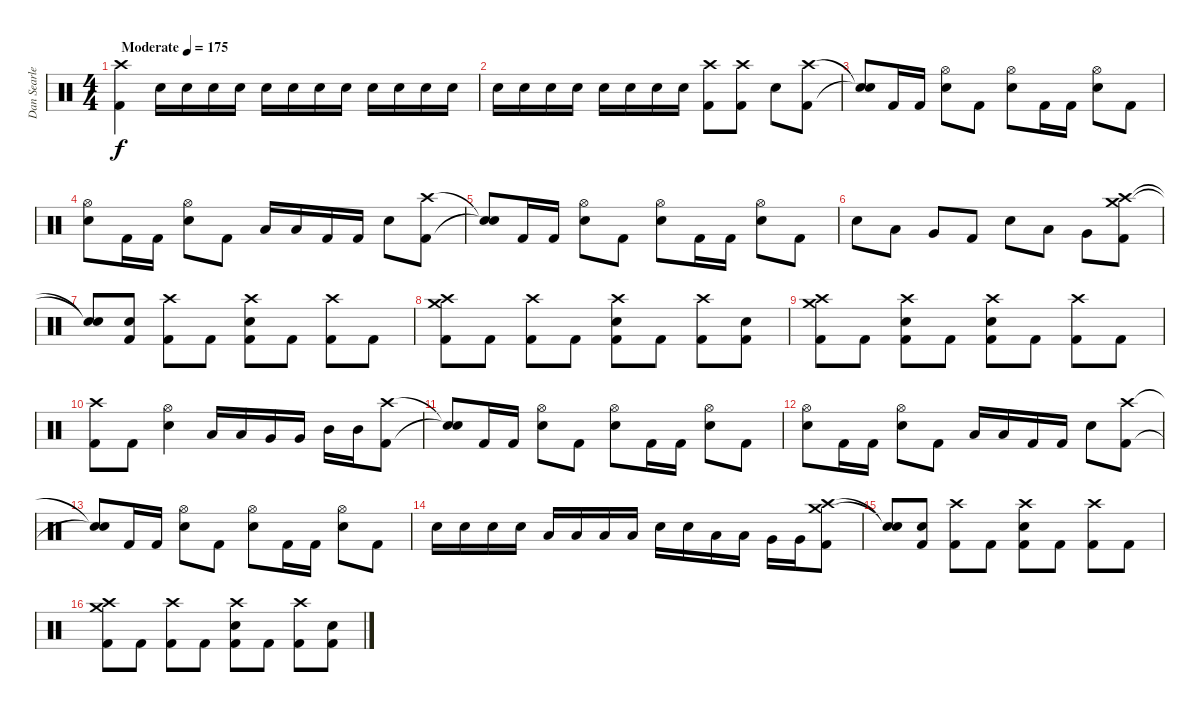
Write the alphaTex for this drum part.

\track ("Dan Searle" "Dan Searle") {instrument percussion}
\staff {score}
\articulation defaults
\ts (4 4)
\tempo (175 "Moderate")
\clef neutral
\ks c
("Crash high (hit)" "Kick (hit) 2").4{dy f} "Snare (hit) 2".16 "Snare (hit) 2".16 "Snare (hit) 2".16 "Snare (hit) 2".16 "Snare (hit) 2".16 "Snare (hit) 2".16 "Snare (hit) 2".16 "Snare (hit) 2".16 "Snare (hit) 2".16 "Snare (hit) 2".16 "Snare (hit) 2".16 "Snare (hit) 2".16 |
"Snare (hit) 2".16 "Snare (hit) 2".16 "Snare (hit) 2".16 "Snare (hit) 2".16 "Snare (hit) 2".16 "Snare (hit) 2".16 "Snare (hit) 2".16 "Snare (hit) 2".16 ("Crash high (hit)" "Kick (hit) 2").8 ("Crash high (hit)" "Kick (hit) 2").8 "Snare (hit) 2".8 ("Crash high (hit)" "Kick (hit) 2").8 |
("Snare (hit)"{t} "Snare (hit)"{t}).8 "Kick (hit) 2".16 "Kick (hit) 2".16 ("Hi-Hat (open)" "Snare (hit) 2").8 "Kick (hit) 2".8 ("Hi-Hat (open)" "Snare (hit) 2").8 "Kick (hit) 2".16 "Kick (hit) 2".16 ("Hi-Hat (open)" "Snare (hit) 2").8 "Kick (hit) 2".8 |
("Hi-Hat (open)" "Snare (hit) 2").8 "Kick (hit) 2".16 "Kick (hit) 2".16 ("Hi-Hat (open)" "Snare (hit) 2").8 "Kick (hit) 2".8 "Low Floor Tom (hit)".16 "Low Floor Tom (hit)".16 "Kick (hit) 2".16 "Kick (hit) 2".16 "Snare (hit) 2".8 ("Crash high (hit)" "Kick (hit) 2").8 |
("Snare (hit)"{t} "Snare (hit)"{t}).8 "Kick (hit) 2".16 "Kick (hit) 2".16 ("Hi-Hat (open)" "Snare (hit) 2").8 "Kick (hit) 2".8 ("Hi-Hat (open)" "Snare (hit) 2").8 "Kick (hit) 2".16 "Kick (hit) 2".16 ("Hi-Hat (open)" "Snare (hit) 2").8 "Kick (hit) 2".8 |
"Snare (hit) 2".8 "Low Floor Tom (hit)".8 "Very Low Tom (hit)".8 "Kick (hit) 2".8 "Snare (hit) 2".8 "Low Floor Tom (hit)".8 "Very Low Tom (hit)".8 ("Crash high (hit)" "Crash medium (hit)" "Kick (hit) 2").8 |
("Snare (hit)"{t} "Snare (hit)"{t}).8 ("Snare (hit) 2" "Kick (hit) 2").8 ("Crash high (hit)" "Kick (hit) 2").8 "Kick (hit) 2".8 ("Crash high (hit)" "Snare (hit) 2" "Kick (hit) 2").8 "Kick (hit) 2".8 ("Crash high (hit)" "Kick (hit) 2").8 "Kick (hit) 2".8 |
("Crash high (hit)" "Crash medium (hit)" "Kick (hit) 2").8 "Kick (hit) 2".8 ("Crash high (hit)" "Kick (hit) 2").8 "Kick (hit) 2".8 ("Crash high (hit)" "Snare (hit) 2" "Kick (hit) 2").8 "Kick (hit) 2".8 ("Crash high (hit)" "Kick (hit) 2").8 ("Snare (hit) 2" "Kick (hit) 2").8 |
("Crash high (hit)" "Crash medium (hit)" "Kick (hit) 2").8 "Kick (hit) 2".8 ("Crash high (hit)" "Snare (hit) 2" "Kick (hit) 2").8 "Kick (hit) 2".8 ("Crash high (hit)" "Snare (hit) 2" "Kick (hit) 2").8 "Kick (hit) 2".8 ("Crash high (hit)" "Kick (hit) 2").8 "Kick (hit) 2".8 |
("Crash high (hit)" "Kick (hit) 2").8 "Kick (hit) 2".8 ("Hi-Hat (open)" "Snare (hit) 2").4 "Low Floor Tom (hit)".16 "Low Floor Tom (hit)".16 "Very Low Tom (hit)".16 "Very Low Tom (hit)".16 "Mid Tom (hit)".16 "Mid Tom (hit)".16 ("Crash high (hit)" "Kick (hit) 2").8 |
("Snare (hit)"{t} "Snare (hit)"{t}).8 "Kick (hit) 2".16 "Kick (hit) 2".16 ("Hi-Hat (open)" "Snare (hit) 2").8 "Kick (hit) 2".8 ("Hi-Hat (open)" "Snare (hit) 2").8 "Kick (hit) 2".16 "Kick (hit) 2".16 ("Hi-Hat (open)" "Snare (hit) 2").8 "Kick (hit) 2".8 |
("Hi-Hat (open)" "Snare (hit) 2").8 "Kick (hit) 2".16 "Kick (hit) 2".16 ("Hi-Hat (open)" "Snare (hit) 2").8 "Kick (hit) 2".8 "Low Floor Tom (hit)".16 "Low Floor Tom (hit)".16 "Kick (hit) 2".16 "Kick (hit) 2".16 "Snare (hit) 2".8 ("Crash high (hit)" "Kick (hit) 2").8 |
("Snare (hit)"{t} "Snare (hit)"{t}).8 "Kick (hit) 2".16 "Kick (hit) 2".16 ("Hi-Hat (open)" "Snare (hit) 2").8 "Kick (hit) 2".8 ("Hi-Hat (open)" "Snare (hit) 2").8 "Kick (hit) 2".16 "Kick (hit) 2".16 ("Hi-Hat (open)" "Snare (hit) 2").8 "Kick (hit) 2".8 |
"Snare (hit) 2".16 "Snare (hit) 2".16 "Snare (hit) 2".16 "Snare (hit) 2".16 "Low Floor Tom (hit)".16 "Low Floor Tom (hit)".16 "Low Floor Tom (hit)".16 "Low Floor Tom (hit)".16 "Snare (hit) 2".16 "Snare (hit) 2".16 "Low Floor Tom (hit)".16 "Low Floor Tom (hit)".16 "Very Low Tom (hit)".16 "Very Low Tom (hit)".16 ("Crash high (hit)" "Crash medium (hit)" "Kick (hit) 2").8 |
("Snare (hit)"{t} "Snare (hit)"{t}).8 ("Snare (hit) 2" "Kick (hit) 2").8 ("Crash high (hit)" "Kick (hit) 2").8 "Kick (hit) 2".8 ("Crash high (hit)" "Snare (hit) 2" "Kick (hit) 2").8 "Kick (hit) 2".8 ("Crash high (hit)" "Kick (hit) 2").8 "Kick (hit) 2".8 |
("Crash high (hit)" "Crash medium (hit)" "Kick (hit) 2").8 "Kick (hit) 2".8 ("Crash high (hit)" "Kick (hit) 2").8 "Kick (hit) 2".8 ("Crash high (hit)" "Snare (hit) 2" "Kick (hit) 2").8 "Kick (hit) 2".8 ("Crash high (hit)" "Kick (hit) 2").8 ("Snare (hit) 2" "Kick (hit) 2").8
